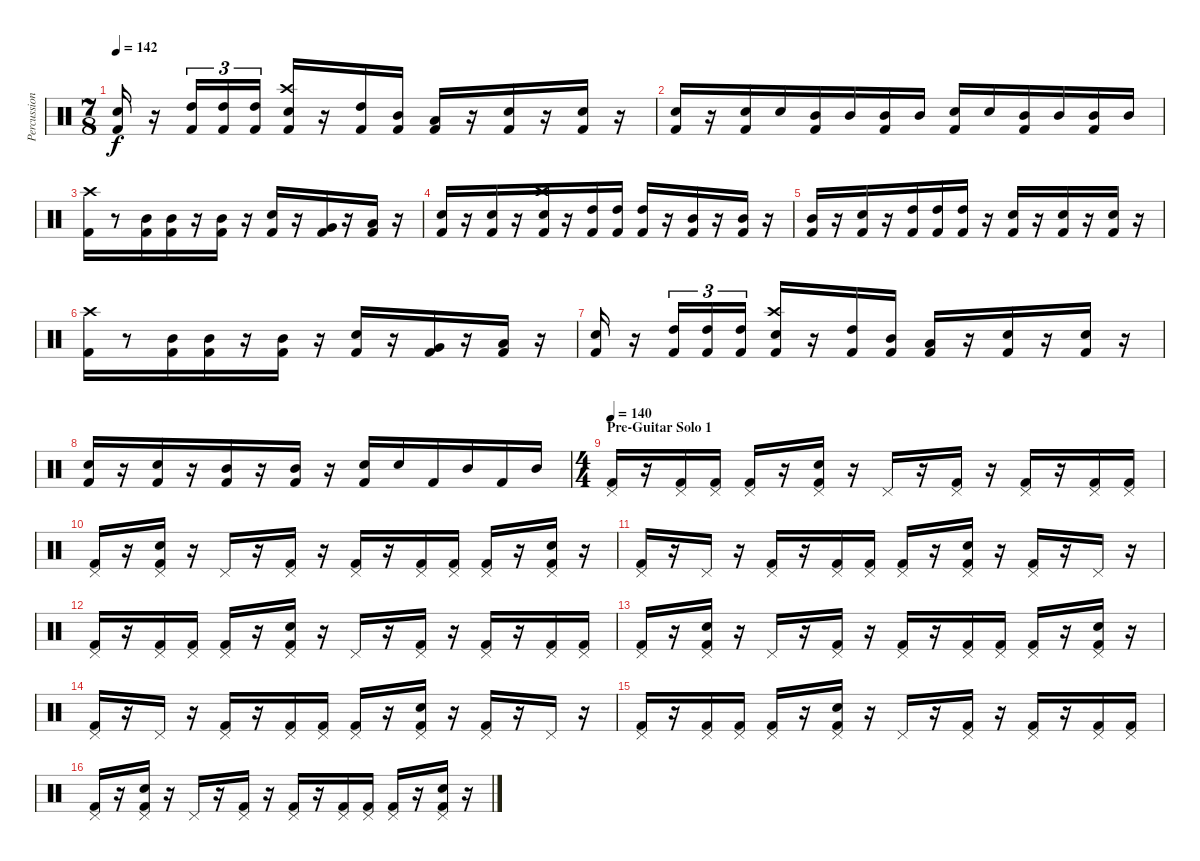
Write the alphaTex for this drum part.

\track ("Percussion" "Percussion") {instrument percussion}
\staff {score}
\articulation defaults
\ts (7 8)
\tempo 142
\clef neutral
\ks c
("Electric Snare (hit)" "Kick (hit) 2").16{dy f} r.16 ("High Tom (hit)" "Kick (hit) 2").16{tu (3 2)} ("High Tom (hit)" "Kick (hit) 2").16{tu (3 2)} ("High Tom (hit)" "Kick (hit) 2").16{tu (3 2)} ("Crash high (hit)" "Snare (hit) 2" "Kick (hit) 2").16 r.16 ("High Tom (hit)" "Kick (hit) 2").16 ("Mid Tom (hit)" "Kick (hit) 2").16 ("Low Tom (hit)" "Kick (hit) 2").16 r.16 ("Snare (hit) 2" "Kick (hit) 2").16 r.16 ("Snare (hit) 2" "Kick (hit) 2").16 r.16 |
("Snare (hit) 2" "Kick (hit) 2").16 r.16 ("Electric Snare (hit)" "Kick (hit) 2").16 "Electric Snare (hit)".16 ("Mid Tom (hit)" "Kick (hit) 2").16 "Mid Tom (hit)".16 ("Mid Tom (hit)" "Kick (hit) 2").16 "Mid Tom (hit)".16 ("Electric Snare (hit)" "Kick (hit) 2").16 "Electric Snare (hit)".16 ("Mid Tom (hit)" "Kick (hit) 2").16 "Mid Tom (hit)".16 ("Mid Tom (hit)" "Kick (hit) 2").16 "Mid Tom (hit)".16 |
("Crash high (hit)" "Kick (hit) 2").16 r.8 ("Mid Tom (hit)" "Kick (hit) 2").16 ("Mid Tom (hit)" "Kick (hit) 2").16 r.16 ("Mid Tom (hit)" "Kick (hit) 2").16 r.16 ("Snare (hit) 2" "Kick (hit) 2").16 r.16 ("Very Low Tom (hit)" "Kick (hit) 2").16 r.16 ("Low Tom (hit)" "Kick (hit) 2").16 r.16 |
("Snare (hit) 2" "Kick (hit) 2").16 r.16 ("Snare (hit) 2" "Kick (hit) 2").16 r.16 ("Crash high (hit)" "Snare (hit) 2" "Kick (hit) 2").16 r.16 ("High Tom (hit)" "Kick (hit) 2").16 ("High Tom (hit)" "Kick (hit) 2").16 ("High Tom (hit)" "Kick (hit) 2").16 r.16 ("Mid Tom (hit)" "Kick (hit) 2").16 r.16 ("Mid Tom (hit)" "Kick (hit) 2").16 r.16 |
("Mid Tom (hit)" "Kick (hit) 2").16 r.16 ("Snare (hit) 2" "Kick (hit) 2").16 r.16 ("High Tom (hit)" "Kick (hit) 2").16 ("High Tom (hit)" "Kick (hit) 2").16 ("High Tom (hit)" "Kick (hit) 2").16 r.16 ("Snare (hit) 2" "Kick (hit) 2").16 r.16 ("Snare (hit) 2" "Kick (hit) 2").16 r.16 ("Snare (hit) 2" "Kick (hit) 2").16 r.16 |
("Crash high (hit)" "Kick (hit) 2").16 r.8 ("Mid Tom (hit)" "Kick (hit) 2").16 ("Mid Tom (hit)" "Kick (hit) 2").16 r.16 ("Mid Tom (hit)" "Kick (hit) 2").16 r.16 ("Snare (hit) 2" "Kick (hit) 2").16 r.16 ("Very Low Tom (hit)" "Kick (hit) 2").16 r.16 ("Low Tom (hit)" "Kick (hit) 2").16 r.16 |
("Electric Snare (hit)" "Kick (hit) 2").16 r.16 ("High Tom (hit)" "Kick (hit) 2").16{tu (3 2)} ("High Tom (hit)" "Kick (hit) 2").16{tu (3 2)} ("High Tom (hit)" "Kick (hit) 2").16{tu (3 2)} ("Crash high (hit)" "Snare (hit) 2" "Kick (hit) 2").16 r.16 ("High Tom (hit)" "Kick (hit) 2").16 ("Mid Tom (hit)" "Kick (hit) 2").16 ("Low Tom (hit)" "Kick (hit) 2").16 r.16 ("Snare (hit) 2" "Kick (hit) 2").16 r.16 ("Snare (hit) 2" "Kick (hit) 2").16 r.16 |
("Snare (hit) 2" "Kick (hit) 2").16 r.16 ("Electric Snare (hit)" "Kick (hit) 2").16 r.16 ("Mid Tom (hit)" "Kick (hit) 2").16 r.16 ("Mid Tom (hit)" "Kick (hit) 2").16 r.16 ("Electric Snare (hit)" "Kick (hit) 2").16 "Electric Snare (hit)".16 "Kick (hit) 2".16 "Mid Tom (hit)".16 "Kick (hit) 2".16 "Mid Tom (hit)".16 |
\ts (4 4)
\section ("" "Pre-Guitar Solo 1")
\tempo 140
("Pedal Hi-Hat (hit)" "Kick (hit) 2").16 r.16 ("Pedal Hi-Hat (hit)" "Kick (hit) 2").16 ("Pedal Hi-Hat (hit)" "Kick (hit) 2").16 ("Pedal Hi-Hat (hit)" "Kick (hit) 2").16 r.16 ("Snare (hit) 2" "Pedal Hi-Hat (hit)" "Kick (hit) 2").16 r.16 "Pedal Hi-Hat (hit)".16 r.16 ("Pedal Hi-Hat (hit)" "Kick (hit) 2").16 r.16 ("Pedal Hi-Hat (hit)" "Kick (hit) 2").16 r.16 ("Pedal Hi-Hat (hit)" "Kick (hit) 2").16 ("Pedal Hi-Hat (hit)" "Kick (hit) 2").16 |
("Pedal Hi-Hat (hit)" "Kick (hit) 2").16 r.16 ("Snare (hit) 2" "Pedal Hi-Hat (hit)" "Kick (hit) 2").16 r.16 "Pedal Hi-Hat (hit)".16 r.16 ("Pedal Hi-Hat (hit)" "Kick (hit) 2").16 r.16 ("Pedal Hi-Hat (hit)" "Kick (hit) 2").16 r.16 ("Pedal Hi-Hat (hit)" "Kick (hit) 2").16 ("Pedal Hi-Hat (hit)" "Kick (hit) 2").16 ("Pedal Hi-Hat (hit)" "Kick (hit) 2").16 r.16 ("Snare (hit) 2" "Pedal Hi-Hat (hit)" "Kick (hit) 2").16 r.16 |
("Pedal Hi-Hat (hit)" "Kick (hit) 2").16 r.16 "Pedal Hi-Hat (hit)".16 r.16 ("Pedal Hi-Hat (hit)" "Kick (hit) 2").16 r.16 ("Pedal Hi-Hat (hit)" "Kick (hit) 2").16 ("Pedal Hi-Hat (hit)" "Kick (hit) 2").16 ("Pedal Hi-Hat (hit)" "Kick (hit) 2").16 r.16 ("Snare (hit) 2" "Pedal Hi-Hat (hit)" "Kick (hit) 2").16 r.16 ("Pedal Hi-Hat (hit)" "Kick (hit) 2").16 r.16 "Pedal Hi-Hat (hit)".16 r.16 |
("Pedal Hi-Hat (hit)" "Kick (hit) 2").16 r.16 ("Pedal Hi-Hat (hit)" "Kick (hit) 2").16 ("Pedal Hi-Hat (hit)" "Kick (hit) 2").16 ("Pedal Hi-Hat (hit)" "Kick (hit) 2").16 r.16 ("Snare (hit) 2" "Pedal Hi-Hat (hit)" "Kick (hit) 2").16 r.16 "Pedal Hi-Hat (hit)".16 r.16 ("Pedal Hi-Hat (hit)" "Kick (hit) 2").16 r.16 ("Pedal Hi-Hat (hit)" "Kick (hit) 2").16 r.16 ("Pedal Hi-Hat (hit)" "Kick (hit) 2").16 ("Pedal Hi-Hat (hit)" "Kick (hit) 2").16 |
("Pedal Hi-Hat (hit)" "Kick (hit) 2").16 r.16 ("Snare (hit) 2" "Pedal Hi-Hat (hit)" "Kick (hit) 2").16 r.16 "Pedal Hi-Hat (hit)".16 r.16 ("Pedal Hi-Hat (hit)" "Kick (hit) 2").16 r.16 ("Pedal Hi-Hat (hit)" "Kick (hit) 2").16 r.16 ("Pedal Hi-Hat (hit)" "Kick (hit) 2").16 ("Pedal Hi-Hat (hit)" "Kick (hit) 2").16 ("Pedal Hi-Hat (hit)" "Kick (hit) 2").16 r.16 ("Snare (hit) 2" "Pedal Hi-Hat (hit)" "Kick (hit) 2").16 r.16 |
("Pedal Hi-Hat (hit)" "Kick (hit) 2").16 r.16 "Pedal Hi-Hat (hit)".16 r.16 ("Pedal Hi-Hat (hit)" "Kick (hit) 2").16 r.16 ("Pedal Hi-Hat (hit)" "Kick (hit) 2").16 ("Pedal Hi-Hat (hit)" "Kick (hit) 2").16 ("Pedal Hi-Hat (hit)" "Kick (hit) 2").16 r.16 ("Snare (hit) 2" "Pedal Hi-Hat (hit)" "Kick (hit) 2").16 r.16 ("Pedal Hi-Hat (hit)" "Kick (hit) 2").16 r.16 "Pedal Hi-Hat (hit)".16 r.16 |
("Pedal Hi-Hat (hit)" "Kick (hit) 2").16 r.16 ("Pedal Hi-Hat (hit)" "Kick (hit) 2").16 ("Pedal Hi-Hat (hit)" "Kick (hit) 2").16 ("Pedal Hi-Hat (hit)" "Kick (hit) 2").16 r.16 ("Snare (hit) 2" "Pedal Hi-Hat (hit)" "Kick (hit) 2").16 r.16 "Pedal Hi-Hat (hit)".16 r.16 ("Pedal Hi-Hat (hit)" "Kick (hit) 2").16 r.16 ("Pedal Hi-Hat (hit)" "Kick (hit) 2").16 r.16 ("Pedal Hi-Hat (hit)" "Kick (hit) 2").16 ("Pedal Hi-Hat (hit)" "Kick (hit) 2").16 |
("Pedal Hi-Hat (hit)" "Kick (hit) 2").16 r.16 ("Snare (hit) 2" "Pedal Hi-Hat (hit)" "Kick (hit) 2").16 r.16 "Pedal Hi-Hat (hit)".16 r.16 ("Pedal Hi-Hat (hit)" "Kick (hit) 2").16 r.16 ("Pedal Hi-Hat (hit)" "Kick (hit) 2").16 r.16 ("Pedal Hi-Hat (hit)" "Kick (hit) 2").16 ("Pedal Hi-Hat (hit)" "Kick (hit) 2").16 ("Pedal Hi-Hat (hit)" "Kick (hit) 2").16 r.16 ("Snare (hit) 2" "Pedal Hi-Hat (hit)" "Kick (hit) 2").16 r.16
